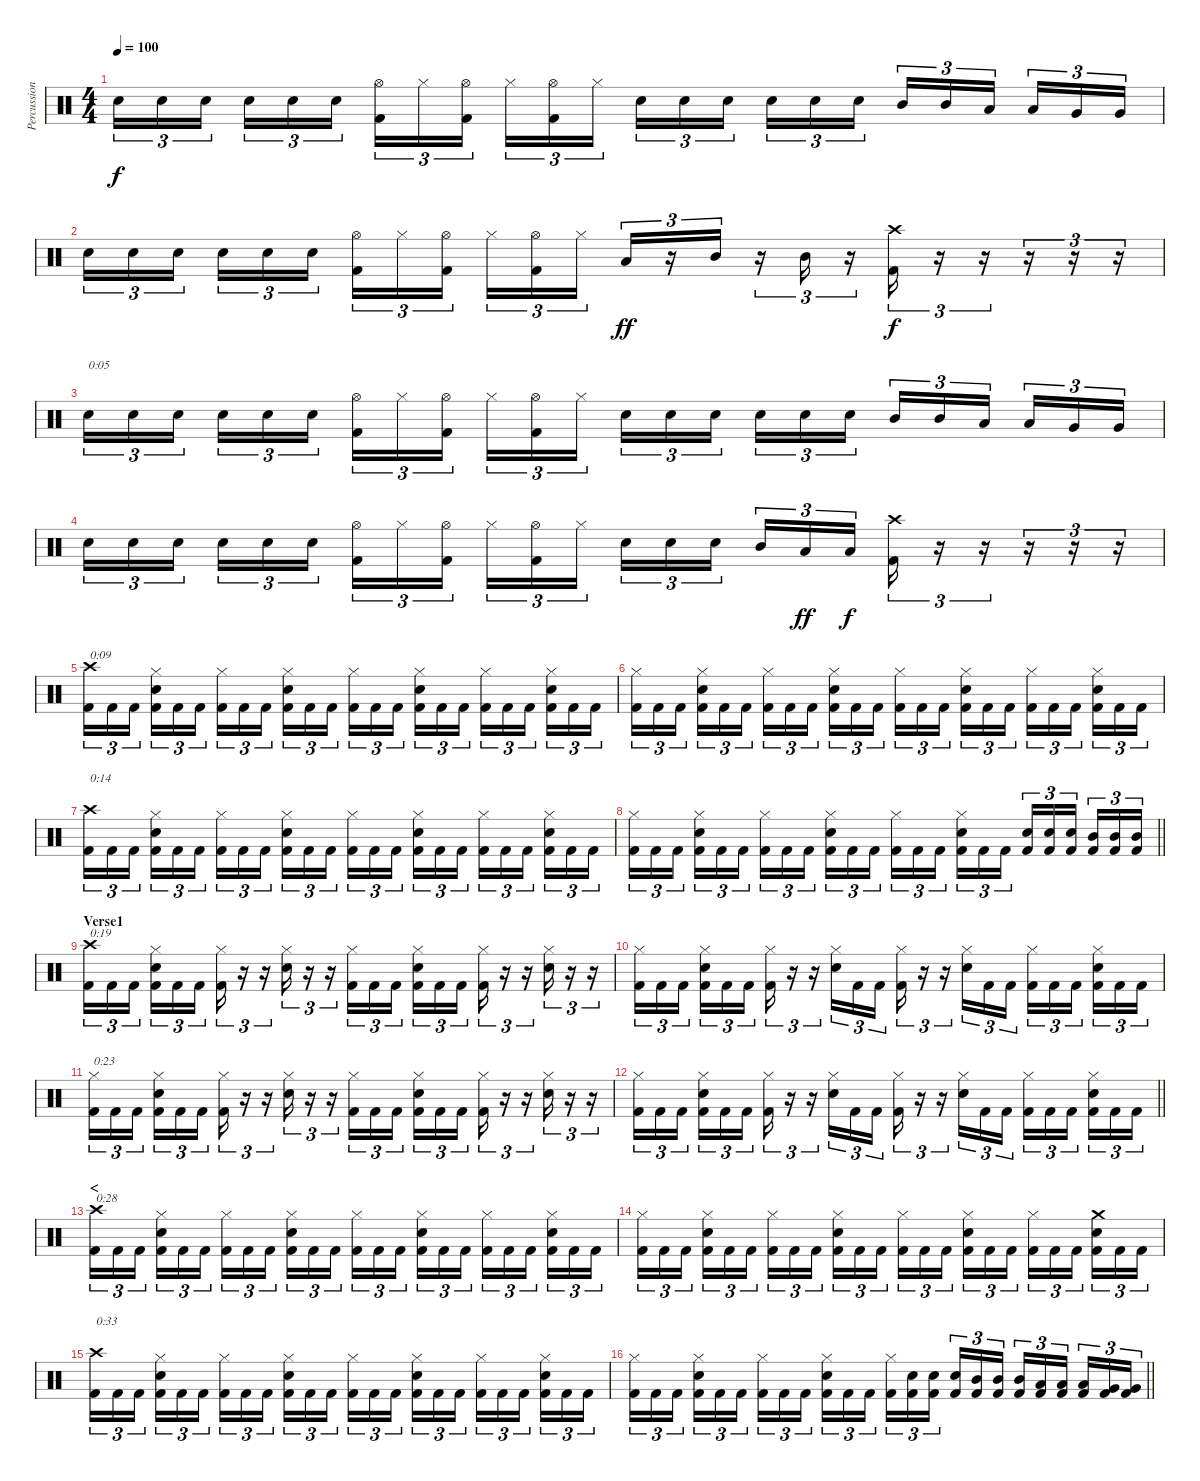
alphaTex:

\track ("Percussion" "Percussion") {instrument percussion}
\staff {score}
\articulation defaults
\ts (4 4)
\tempo 100
\clef neutral
\ks c "Snare (hit) 2".16{tu (3 2) dy f} "Snare (hit) 2".16{tu (3 2)} "Snare (hit) 2".16{tu (3 2) beam splitsecondary} "Snare (hit) 2".16{tu (3 2)} "Snare (hit) 2".16{tu (3 2)} "Snare (hit) 2".16{tu (3 2)}
("Hi-Hat (open)" "Kick (hit) 2").16{tu (3 2)} "Hi-Hat (closed)".16{tu (3 2)} ("Hi-Hat (open)" "Kick (hit) 2").16{tu (3 2) beam splitsecondary} "Hi-Hat (closed)".16{tu (3 2)} ("Hi-Hat (open)" "Kick (hit) 2").16{tu (3 2)} "Hi-Hat (closed)".16{tu (3 2)} "Snare (hit) 2".16{tu (3 2)} "Snare (hit) 2".16{tu (3 2)} "Snare (hit) 2".16{tu (3 2) beam splitsecondary} "Snare (hit) 2".16{tu (3 2)} "Snare (hit) 2".16{tu (3 2)} "Snare (hit) 2".16{tu (3 2)} "Mid Tom (hit)".16{tu (3 2)} "Mid Tom (hit)".16{tu (3 2)} "Low Tom (hit)".16{tu (3 2) beam splitsecondary} "Low Tom (hit)".16{tu (3 2)} "Very Low Tom (hit)".16{tu (3 2)} "Very Low Tom (hit)".16{tu (3 2)} |
"Snare (hit) 2".16{tu (3 2)} "Snare (hit) 2".16{tu (3 2)} "Snare (hit) 2".16{tu (3 2) beam splitsecondary} "Snare (hit) 2".16{tu (3 2)} "Snare (hit) 2".16{tu (3 2)} "Snare (hit) 2".16{tu (3 2)} ("Hi-Hat (open)" "Kick (hit) 2").16{tu (3 2)} "Hi-Hat (closed)".16{tu (3 2)} ("Hi-Hat (open)" "Kick (hit) 2").16{tu (3 2) beam splitsecondary} "Hi-Hat (closed)".16{tu (3 2)} ("Hi-Hat (open)" "Kick (hit) 2").16{tu (3 2)} "Hi-Hat (closed)".16{tu (3 2)} "Low Tom (hit)".16{tu (3 2) dy ff} r.16{tu (3 2)} "Mid Tom (hit)".16{tu (3 2)} r.16{tu (3 2)} "Mid Tom (hit)".16{tu (3 2)} r.16{tu (3 2)} ("Crash high (hit)" "Kick (hit) 2").16{tu (3 2) dy f} r.16{tu (3 2)} r.16{tu (3 2)} r.16{tu (3 2)} r.16{tu (3 2)} r.16{tu (3 2)} |
"Snare (hit) 2".16{tu (3 2) txt "0:05"} "Snare (hit) 2".16{tu (3 2)} "Snare (hit) 2".16{tu (3 2) beam splitsecondary} "Snare (hit) 2".16{tu (3 2)} "Snare (hit) 2".16{tu (3 2)} "Snare (hit) 2".16{tu (3 2)} ("Hi-Hat (open)" "Kick (hit) 2").16{tu (3 2)} "Hi-Hat (closed)".16{tu (3 2)} ("Hi-Hat (open)" "Kick (hit) 2").16{tu (3 2) beam splitsecondary} "Hi-Hat (closed)".16{tu (3 2)} ("Hi-Hat (open)" "Kick (hit) 2").16{tu (3 2)} "Hi-Hat (closed)".16{tu (3 2)} "Snare (hit) 2".16{tu (3 2)} "Snare (hit) 2".16{tu (3 2)} "Snare (hit) 2".16{tu (3 2) beam splitsecondary} "Snare (hit) 2".16{tu (3 2)} "Snare (hit) 2".16{tu (3 2)} "Snare (hit) 2".16{tu (3 2)} "Mid Tom (hit)".16{tu (3 2)} "Mid Tom (hit)".16{tu (3 2)} "Low Tom (hit)".16{tu (3 2) beam splitsecondary} "Low Tom (hit)".16{tu (3 2)} "Very Low Tom (hit)".16{tu (3 2)} "Very Low Tom (hit)".16{tu (3 2)} |
"Snare (hit) 2".16{tu (3 2)} "Snare (hit) 2".16{tu (3 2)} "Snare (hit) 2".16{tu (3 2) beam splitsecondary} "Snare (hit) 2".16{tu (3 2)} "Snare (hit) 2".16{tu (3 2)} "Snare (hit) 2".16{tu (3 2)} ("Hi-Hat (open)" "Kick (hit) 2").16{tu (3 2)} "Hi-Hat (closed)".16{tu (3 2)} ("Hi-Hat (open)" "Kick (hit) 2").16{tu (3 2) beam splitsecondary} "Hi-Hat (closed)".16{tu (3 2)} ("Hi-Hat (open)" "Kick (hit) 2").16{tu (3 2)} "Hi-Hat (closed)".16{tu (3 2)} "Snare (hit) 2".16{tu (3 2)} "Snare (hit) 2".16{tu (3 2)} "Snare (hit) 2".16{tu (3 2) beam splitsecondary} "Mid Tom (hit)".16{tu (3 2)} "Low Tom (hit)".16{tu (3 2) dy ff} "Low Tom (hit)".16{tu (3 2) dy f} ("Crash high (hit)" "Kick (hit) 2").16{tu (3 2)} r.16{tu (3 2)} r.16{tu (3 2)} r.16{tu (3 2)} r.16{tu (3 2)} r.16{tu (3 2)} |
("Crash high (hit)" "Kick (hit) 2").16{tu (3 2) txt "0:09"} "Kick (hit) 2".16{tu (3 2)} "Kick (hit) 2".16{tu (3 2) beam splitsecondary} ("Hi-Hat (closed)" "Snare (hit) 2" "Kick (hit) 2").16{tu (3 2)} "Kick (hit) 2".16{tu (3 2)} "Kick (hit) 2".16{tu (3 2)} ("Hi-Hat (closed)" "Kick (hit) 2").16{tu (3 2)} "Kick (hit) 2".16{tu (3 2)} "Kick (hit) 2".16{tu (3 2) beam splitsecondary} ("Hi-Hat (closed)" "Snare (hit) 2" "Kick (hit) 2").16{tu (3 2)} "Kick (hit) 2".16{tu (3 2)} "Kick (hit) 2".16{tu (3 2)} ("Hi-Hat (closed)" "Kick (hit) 2").16{tu (3 2)} "Kick (hit) 2".16{tu (3 2)} "Kick (hit) 2".16{tu (3 2) beam splitsecondary} ("Hi-Hat (closed)" "Snare (hit) 2" "Kick (hit) 2").16{tu (3 2)} "Kick (hit) 2".16{tu (3 2)} "Kick (hit) 2".16{tu (3 2)} ("Hi-Hat (closed)" "Kick (hit) 2").16{tu (3 2)} "Kick (hit) 2".16{tu (3 2)} "Kick (hit) 2".16{tu (3 2) beam splitsecondary} ("Hi-Hat (closed)" "Snare (hit) 2" "Kick (hit) 2").16{tu (3 2)} "Kick (hit) 2".16{tu (3 2)} "Kick (hit) 2".16{tu (3 2)} |
("Hi-Hat (closed)" "Kick (hit) 2").16{tu (3 2)} "Kick (hit) 2".16{tu (3 2)} "Kick (hit) 2".16{tu (3 2) beam splitsecondary} ("Hi-Hat (closed)" "Snare (hit) 2" "Kick (hit) 2").16{tu (3 2)} "Kick (hit) 2".16{tu (3 2)} "Kick (hit) 2".16{tu (3 2)} ("Hi-Hat (closed)" "Kick (hit) 2").16{tu (3 2)} "Kick (hit) 2".16{tu (3 2)} "Kick (hit) 2".16{tu (3 2) beam splitsecondary} ("Hi-Hat (closed)" "Snare (hit) 2" "Kick (hit) 2").16{tu (3 2)} "Kick (hit) 2".16{tu (3 2)} "Kick (hit) 2".16{tu (3 2)} ("Hi-Hat (closed)" "Kick (hit) 2").16{tu (3 2)} "Kick (hit) 2".16{tu (3 2)} "Kick (hit) 2".16{tu (3 2) beam splitsecondary} ("Hi-Hat (closed)" "Snare (hit) 2" "Kick (hit) 2").16{tu (3 2)} "Kick (hit) 2".16{tu (3 2)} "Kick (hit) 2".16{tu (3 2)} ("Hi-Hat (closed)" "Kick (hit) 2").16{tu (3 2)} "Kick (hit) 2".16{tu (3 2)} "Kick (hit) 2".16{tu (3 2) beam splitsecondary} ("Hi-Hat (closed)" "Snare (hit) 2" "Kick (hit) 2").16{tu (3 2)} "Kick (hit) 2".16{tu (3 2)} "Kick (hit) 2".16{tu (3 2)} |
("Crash high (hit)" "Kick (hit) 2").16{tu (3 2) txt "0:14"} "Kick (hit) 2".16{tu (3 2)} "Kick (hit) 2".16{tu (3 2) beam splitsecondary} ("Hi-Hat (closed)" "Snare (hit) 2" "Kick (hit) 2").16{tu (3 2)} "Kick (hit) 2".16{tu (3 2)} "Kick (hit) 2".16{tu (3 2)} ("Hi-Hat (closed)" "Kick (hit) 2").16{tu (3 2)} "Kick (hit) 2".16{tu (3 2)} "Kick (hit) 2".16{tu (3 2) beam splitsecondary} ("Hi-Hat (closed)" "Snare (hit) 2" "Kick (hit) 2").16{tu (3 2)} "Kick (hit) 2".16{tu (3 2)} "Kick (hit) 2".16{tu (3 2)} ("Hi-Hat (closed)" "Kick (hit) 2").16{tu (3 2)} "Kick (hit) 2".16{tu (3 2)} "Kick (hit) 2".16{tu (3 2) beam splitsecondary} ("Hi-Hat (closed)" "Snare (hit) 2" "Kick (hit) 2").16{tu (3 2)} "Kick (hit) 2".16{tu (3 2)} "Kick (hit) 2".16{tu (3 2)} ("Hi-Hat (closed)" "Kick (hit) 2").16{tu (3 2)} "Kick (hit) 2".16{tu (3 2)} "Kick (hit) 2".16{tu (3 2) beam splitsecondary} ("Hi-Hat (closed)" "Snare (hit) 2" "Kick (hit) 2").16{tu (3 2)} "Kick (hit) 2".16{tu (3 2)} "Kick (hit) 2".16{tu (3 2)} |
\barLineRight lightlight
("Hi-Hat (closed)" "Kick (hit) 2").16{tu (3 2)} "Kick (hit) 2".16{tu (3 2)} "Kick (hit) 2".16{tu (3 2) beam splitsecondary} ("Hi-Hat (closed)" "Snare (hit) 2" "Kick (hit) 2").16{tu (3 2)} "Kick (hit) 2".16{tu (3 2)} "Kick (hit) 2".16{tu (3 2)} ("Hi-Hat (closed)" "Kick (hit) 2").16{tu (3 2)} "Kick (hit) 2".16{tu (3 2)} "Kick (hit) 2".16{tu (3 2) beam splitsecondary} ("Hi-Hat (closed)" "Snare (hit) 2" "Kick (hit) 2").16{tu (3 2)} "Kick (hit) 2".16{tu (3 2)} "Kick (hit) 2".16{tu (3 2)} ("Hi-Hat (closed)" "Kick (hit) 2").16{tu (3 2)} "Kick (hit) 2".16{tu (3 2)} "Kick (hit) 2".16{tu (3 2) beam splitsecondary} ("Hi-Hat (closed)" "Snare (hit) 2" "Kick (hit) 2").16{tu (3 2)} "Kick (hit) 2".16{tu (3 2)} "Kick (hit) 2".16{tu (3 2)} ("Snare (hit) 2" "Kick (hit) 2").16{tu (3 2)} ("Snare (hit) 2" "Kick (hit) 2").16{tu (3 2)} ("Snare (hit) 2" "Kick (hit) 2").16{tu (3 2) beam splitsecondary} ("Mid Tom (hit)" "Kick (hit) 2").16{tu (3 2)} ("Mid Tom (hit)" "Kick (hit) 2").16{tu (3 2)} ("Mid Tom (hit)" "Kick (hit) 2").16{tu (3 2)} |
\section ("" "Verse1")
("Crash high (hit)" "Kick (hit) 2").16{tu (3 2) txt "0:19"} "Kick (hit) 2".16{tu (3 2)} "Kick (hit) 2".16{tu (3 2) beam splitsecondary} ("Hi-Hat (closed)" "Snare (hit) 2" "Kick (hit) 2").16{tu (3 2)} "Kick (hit) 2".16{tu (3 2)} "Kick (hit) 2".16{tu (3 2)} ("Hi-Hat (closed)" "Kick (hit) 2").16{tu (3 2)} r.16{tu (3 2)} r.16{tu (3 2)} ("Hi-Hat (closed)" "Snare (hit) 2").16{tu (3 2)} r.16{tu (3 2)} r.16{tu (3 2)} ("Hi-Hat (closed)" "Kick (hit) 2").16{tu (3 2)} "Kick (hit) 2".16{tu (3 2)} "Kick (hit) 2".16{tu (3 2) beam splitsecondary} ("Hi-Hat (closed)" "Snare (hit) 2" "Kick (hit) 2").16{tu (3 2)} "Kick (hit) 2".16{tu (3 2)} "Kick (hit) 2".16{tu (3 2)} ("Hi-Hat (closed)" "Kick (hit) 2").16{tu (3 2)} r.16{tu (3 2)} r.16{tu (3 2)} ("Hi-Hat (closed)" "Snare (hit) 2").16{tu (3 2)} r.16{tu (3 2)} r.16{tu (3 2)} |
("Hi-Hat (closed)" "Kick (hit) 2").16{tu (3 2)} "Kick (hit) 2".16{tu (3 2)} "Kick (hit) 2".16{tu (3 2) beam splitsecondary} ("Hi-Hat (closed)" "Snare (hit) 2" "Kick (hit) 2").16{tu (3 2)} "Kick (hit) 2".16{tu (3 2)} "Kick (hit) 2".16{tu (3 2)} ("Hi-Hat (closed)" "Kick (hit) 2").16{tu (3 2)} r.16{tu (3 2)} r.16{tu (3 2)} ("Hi-Hat (closed)" "Snare (hit) 2").16{tu (3 2)} "Kick (hit) 2".16{tu (3 2)} "Kick (hit) 2".16{tu (3 2)} ("Hi-Hat (closed)" "Kick (hit) 2").16{tu (3 2)} r.16{tu (3 2)} r.16{tu (3 2)} ("Hi-Hat (closed)" "Snare (hit) 2").16{tu (3 2)} "Kick (hit) 2".16{tu (3 2)} "Kick (hit) 2".16{tu (3 2)} ("Hi-Hat (closed)" "Kick (hit) 2").16{tu (3 2)} "Kick (hit) 2".16{tu (3 2)} "Kick (hit) 2".16{tu (3 2) beam splitsecondary} ("Hi-Hat (closed)" "Snare (hit) 2" "Kick (hit) 2").16{tu (3 2)} "Kick (hit) 2".16{tu (3 2)} "Kick (hit) 2".16{tu (3 2)} |
("Hi-Hat (closed)" "Kick (hit) 2").16{tu (3 2) txt "0:23"} "Kick (hit) 2".16{tu (3 2)} "Kick (hit) 2".16{tu (3 2) beam splitsecondary} ("Hi-Hat (closed)" "Snare (hit) 2" "Kick (hit) 2").16{tu (3 2)} "Kick (hit) 2".16{tu (3 2)} "Kick (hit) 2".16{tu (3 2)} ("Hi-Hat (closed)" "Kick (hit) 2").16{tu (3 2)} r.16{tu (3 2)} r.16{tu (3 2)} ("Hi-Hat (closed)" "Snare (hit) 2").16{tu (3 2)} r.16{tu (3 2)} r.16{tu (3 2)} ("Hi-Hat (closed)" "Kick (hit) 2").16{tu (3 2)} "Kick (hit) 2".16{tu (3 2)} "Kick (hit) 2".16{tu (3 2) beam splitsecondary} ("Hi-Hat (closed)" "Snare (hit) 2" "Kick (hit) 2").16{tu (3 2)} "Kick (hit) 2".16{tu (3 2)} "Kick (hit) 2".16{tu (3 2)} ("Hi-Hat (closed)" "Kick (hit) 2").16{tu (3 2)} r.16{tu (3 2)} r.16{tu (3 2)} ("Hi-Hat (closed)" "Snare (hit) 2").16{tu (3 2)} r.16{tu (3 2)} r.16{tu (3 2)} |
\barLineRight lightlight
("Hi-Hat (closed)" "Kick (hit) 2").16{tu (3 2)} "Kick (hit) 2".16{tu (3 2)} "Kick (hit) 2".16{tu (3 2) beam splitsecondary} ("Hi-Hat (closed)" "Snare (hit) 2" "Kick (hit) 2").16{tu (3 2)} "Kick (hit) 2".16{tu (3 2)} "Kick (hit) 2".16{tu (3 2)} ("Hi-Hat (closed)" "Kick (hit) 2").16{tu (3 2)} r.16{tu (3 2)} r.16{tu (3 2)} ("Hi-Hat (closed)" "Snare (hit) 2").16{tu (3 2)} "Kick (hit) 2".16{tu (3 2)} "Kick (hit) 2".16{tu (3 2)} ("Hi-Hat (closed)" "Kick (hit) 2").16{tu (3 2)} r.16{tu (3 2)} r.16{tu (3 2)} ("Hi-Hat (closed)" "Snare (hit) 2").16{tu (3 2)} "Kick (hit) 2".16{tu (3 2)} "Kick (hit) 2".16{tu (3 2)} ("Hi-Hat (closed)" "Kick (hit) 2").16{tu (3 2)} "Kick (hit) 2".16{tu (3 2)} "Kick (hit) 2".16{tu (3 2) beam splitsecondary} ("Hi-Hat (closed)" "Snare (hit) 2" "Kick (hit) 2").16{tu (3 2)} "Kick (hit) 2".16{tu (3 2)} "Kick (hit) 2".16{tu (3 2)} |
\section ("" "<")
("Crash high (hit)" "Kick (hit) 2").16{tu (3 2) txt "0:28"} "Kick (hit) 2".16{tu (3 2)} "Kick (hit) 2".16{tu (3 2) beam splitsecondary} ("Hi-Hat (closed)" "Snare (hit) 2" "Kick (hit) 2").16{tu (3 2)} "Kick (hit) 2".16{tu (3 2)} "Kick (hit) 2".16{tu (3 2)} ("Hi-Hat (closed)" "Kick (hit) 2").16{tu (3 2)} "Kick (hit) 2".16{tu (3 2)} "Kick (hit) 2".16{tu (3 2) beam splitsecondary} ("Hi-Hat (closed)" "Snare (hit) 2" "Kick (hit) 2").16{tu (3 2)} "Kick (hit) 2".16{tu (3 2)} "Kick (hit) 2".16{tu (3 2)} ("Hi-Hat (closed)" "Kick (hit) 2").16{tu (3 2)} "Kick (hit) 2".16{tu (3 2)} "Kick (hit) 2".16{tu (3 2) beam splitsecondary} ("Hi-Hat (closed)" "Snare (hit) 2" "Kick (hit) 2").16{tu (3 2)} "Kick (hit) 2".16{tu (3 2)} "Kick (hit) 2".16{tu (3 2)} ("Hi-Hat (closed)" "Kick (hit) 2").16{tu (3 2)} "Kick (hit) 2".16{tu (3 2)} "Kick (hit) 2".16{tu (3 2) beam splitsecondary} ("Hi-Hat (closed)" "Snare (hit) 2" "Kick (hit) 2").16{tu (3 2)} "Kick (hit) 2".16{tu (3 2)} "Kick (hit) 2".16{tu (3 2)} |
("Hi-Hat (closed)" "Kick (hit) 2").16{tu (3 2)} "Kick (hit) 2".16{tu (3 2)} "Kick (hit) 2".16{tu (3 2) beam splitsecondary} ("Hi-Hat (closed)" "Snare (hit) 2" "Kick (hit) 2").16{tu (3 2)} "Kick (hit) 2".16{tu (3 2)} "Kick (hit) 2".16{tu (3 2)} ("Hi-Hat (closed)" "Kick (hit) 2").16{tu (3 2)} "Kick (hit) 2".16{tu (3 2)} "Kick (hit) 2".16{tu (3 2) beam splitsecondary} ("Hi-Hat (closed)" "Snare (hit) 2" "Kick (hit) 2").16{tu (3 2)} "Kick (hit) 2".16{tu (3 2)} "Kick (hit) 2".16{tu (3 2)} ("Hi-Hat (closed)" "Kick (hit) 2").16{tu (3 2)} "Kick (hit) 2".16{tu (3 2)} "Kick (hit) 2".16{tu (3 2) beam splitsecondary} ("Hi-Hat (closed)" "Snare (hit) 2" "Kick (hit) 2").16{tu (3 2)} "Kick (hit) 2".16{tu (3 2)} "Kick (hit) 2".16{tu (3 2)} ("Hi-Hat (closed)" "Kick (hit) 2").16{tu (3 2)} "Kick (hit) 2".16{tu (3 2)} "Kick (hit) 2".16{tu (3 2) beam splitsecondary} ("Crash medium (hit)" "Snare (hit) 2" "Kick (hit) 2").16{tu (3 2)} "Kick (hit) 2".16{tu (3 2)} "Kick (hit) 2".16{tu (3 2)} |
("Crash high (hit)" "Kick (hit) 2").16{tu (3 2) txt "0:33"} "Kick (hit) 2".16{tu (3 2)} "Kick (hit) 2".16{tu (3 2) beam splitsecondary} ("Hi-Hat (closed)" "Snare (hit) 2" "Kick (hit) 2").16{tu (3 2)} "Kick (hit) 2".16{tu (3 2)} "Kick (hit) 2".16{tu (3 2)} ("Hi-Hat (closed)" "Kick (hit) 2").16{tu (3 2)} "Kick (hit) 2".16{tu (3 2)} "Kick (hit) 2".16{tu (3 2) beam splitsecondary} ("Hi-Hat (closed)" "Snare (hit) 2" "Kick (hit) 2").16{tu (3 2)} "Kick (hit) 2".16{tu (3 2)} "Kick (hit) 2".16{tu (3 2)} ("Hi-Hat (closed)" "Kick (hit) 2").16{tu (3 2)} "Kick (hit) 2".16{tu (3 2)} "Kick (hit) 2".16{tu (3 2) beam splitsecondary} ("Hi-Hat (closed)" "Snare (hit) 2" "Kick (hit) 2").16{tu (3 2)} "Kick (hit) 2".16{tu (3 2)} "Kick (hit) 2".16{tu (3 2)} ("Hi-Hat (closed)" "Kick (hit) 2").16{tu (3 2)} "Kick (hit) 2".16{tu (3 2)} "Kick (hit) 2".16{tu (3 2) beam splitsecondary} ("Hi-Hat (closed)" "Snare (hit) 2" "Kick (hit) 2").16{tu (3 2)} "Kick (hit) 2".16{tu (3 2)} "Kick (hit) 2".16{tu (3 2)} |
\barLineRight lightlight
("Hi-Hat (closed)" "Kick (hit) 2").16{tu (3 2)} "Kick (hit) 2".16{tu (3 2)} "Kick (hit) 2".16{tu (3 2) beam splitsecondary} ("Hi-Hat (closed)" "Snare (hit) 2" "Kick (hit) 2").16{tu (3 2)} "Kick (hit) 2".16{tu (3 2)} "Kick (hit) 2".16{tu (3 2)} ("Hi-Hat (closed)" "Kick (hit) 2").16{tu (3 2)} "Kick (hit) 2".16{tu (3 2)} "Kick (hit) 2".16{tu (3 2) beam splitsecondary} ("Hi-Hat (closed)" "Snare (hit) 2" "Kick (hit) 2").16{tu (3 2)} "Kick (hit) 2".16{tu (3 2)} "Kick (hit) 2".16{tu (3 2)} ("Hi-Hat (closed)" "Kick (hit) 2").16{tu (3 2)} ("Snare (hit) 2" "Kick (hit) 2").16{tu (3 2)} ("Snare (hit) 2" "Kick (hit) 2").16{tu (3 2) beam splitsecondary} ("Snare (hit) 2" "Kick (hit) 2").16{tu (3 2)} ("Mid Tom (hit)" "Kick (hit) 2").16{tu (3 2)} ("Mid Tom (hit)" "Kick (hit) 2").16{tu (3 2)} ("Mid Tom (hit)" "Kick (hit) 2").16{tu (3 2)} ("Low Tom (hit)" "Kick (hit) 2").16{tu (3 2)} ("Low Tom (hit)" "Kick (hit) 2").16{tu (3 2) beam splitsecondary} ("Low Tom (hit)" "Kick (hit) 2").16{tu (3 2)} ("Very Low Tom (hit)" "Kick (hit) 2").16{tu (3 2)} ("Very Low Tom (hit)" "Kick (hit) 2").16{tu (3 2)}
